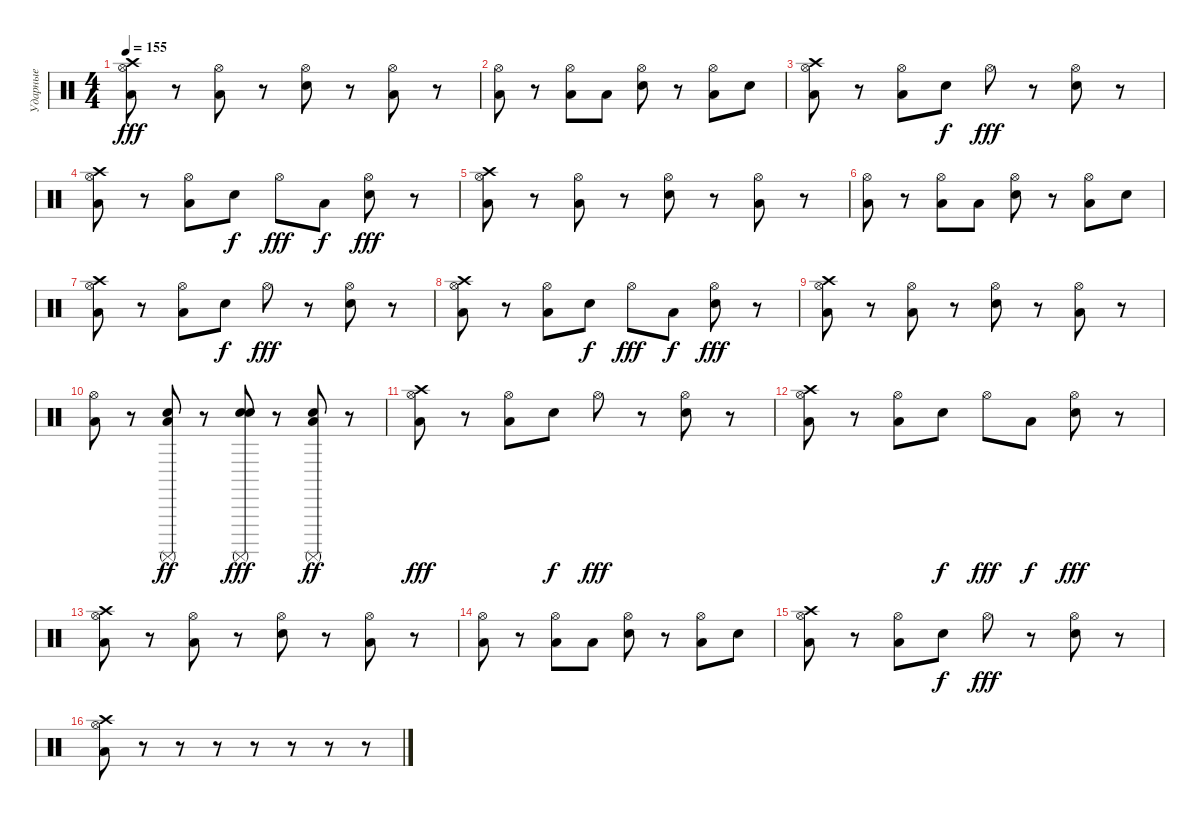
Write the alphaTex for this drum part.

\track ("Ударные" "Ударные") {instrument percussion}
\staff {score}
\articulation defaults
\ts (4 4)
\tempo 155
\clef neutral
\ks c
("Hi-Hat (open)" "Crash high (hit)" "Low Floor Tom (hit)").8{dy fff} r.8 ("Hi-Hat (open)" "Low Tom (hit)").8 r.8 ("Hi-Hat (open)" "Snare (hit) 2").8 r.8 ("Hi-Hat (open)" "Low Tom (hit)").8 r.8 |
("Hi-Hat (open)" "Low Floor Tom (hit)").8 r.8 ("Hi-Hat (open)" "Low Tom (hit)").8 "Low Floor Tom (hit)".8 ("Hi-Hat (open)" "Snare (hit) 2").8 r.8 ("Hi-Hat (open)" "Low Tom (hit)").8 "Snare (hit) 2".8 |
("Hi-Hat (open)" "Crash high (hit)" "Low Floor Tom (hit)").8 r.8 ("Hi-Hat (open)" "Low Tom (hit)").8 "Snare (hit) 2".8{dy f} "Hi-Hat (open)".8{dy fff} r.8 ("Hi-Hat (open)" "Snare (hit) 2").8 r.8 |
("Hi-Hat (open)" "Crash high (hit)" "Low Floor Tom (hit)").8 r.8 ("Hi-Hat (open)" "Low Tom (hit)").8 "Snare (hit) 2".8{dy f} "Hi-Hat (open)".8{dy fff} "Low Tom (hit)".8{dy f} ("Hi-Hat (open)" "Snare (hit) 2").8{dy fff} r.8 |
("Hi-Hat (open)" "Crash high (hit)" "Low Floor Tom (hit)").8 r.8 ("Hi-Hat (open)" "Low Tom (hit)").8 r.8 ("Hi-Hat (open)" "Snare (hit) 2").8 r.8 ("Hi-Hat (open)" "Low Tom (hit)").8 r.8 |
("Hi-Hat (open)" "Low Floor Tom (hit)").8 r.8 ("Hi-Hat (open)" "Low Tom (hit)").8 "Low Floor Tom (hit)".8 ("Hi-Hat (open)" "Snare (hit) 2").8 r.8 ("Hi-Hat (open)" "Low Tom (hit)").8 "Snare (hit) 2".8 |
("Hi-Hat (open)" "Crash high (hit)" "Low Floor Tom (hit)").8 r.8 ("Hi-Hat (open)" "Low Tom (hit)").8 "Snare (hit) 2".8{dy f} "Hi-Hat (open)".8{dy fff} r.8 ("Hi-Hat (open)" "Snare (hit) 2").8 r.8 |
("Hi-Hat (open)" "Crash high (hit)" "Low Floor Tom (hit)").8 r.8 ("Hi-Hat (open)" "Low Tom (hit)").8 "Snare (hit) 2".8{dy f} "Hi-Hat (open)".8{dy fff} "Low Tom (hit)".8{dy f} ("Hi-Hat (open)" "Snare (hit) 2").8{dy fff} r.8 |
("Hi-Hat (open)" "Crash high (hit)" "Low Floor Tom (hit)").8 r.8 ("Hi-Hat (open)" "Low Tom (hit)").8 r.8 ("Hi-Hat (open)" "Snare (hit) 2").8 r.8 ("Hi-Hat (open)" "Low Tom (hit)").8 r.8 |
("Hi-Hat (open)" "Low Floor Tom (hit)").8 r.8 ("Surdo (mute)" "Snare (hit) 2" "Low Tom (hit)").8{dy ff} r.8 ("Surdo (mute)" "Snare (hit) 2" "Snare (hit) 2").8{dy fff} r.8 ("Surdo (mute)" "Snare (hit) 2" "Low Tom (hit)").8{dy ff} r.8 |
("Hi-Hat (open)" "Crash high (hit)" "Low Floor Tom (hit)").8{dy fff} r.8 ("Hi-Hat (open)" "Low Tom (hit)").8 "Snare (hit) 2".8{dy f} "Hi-Hat (open)".8{dy fff} r.8 ("Hi-Hat (open)" "Snare (hit) 2").8 r.8 |
("Hi-Hat (open)" "Crash high (hit)" "Low Floor Tom (hit)").8 r.8 ("Hi-Hat (open)" "Low Tom (hit)").8 "Snare (hit) 2".8{dy f} "Hi-Hat (open)".8{dy fff} "Low Tom (hit)".8{dy f} ("Hi-Hat (open)" "Snare (hit) 2").8{dy fff} r.8 |
("Hi-Hat (open)" "Crash high (hit)" "Low Floor Tom (hit)").8 r.8 ("Hi-Hat (open)" "Low Tom (hit)").8 r.8 ("Hi-Hat (open)" "Snare (hit) 2").8 r.8 ("Hi-Hat (open)" "Low Tom (hit)").8 r.8 |
("Hi-Hat (open)" "Low Floor Tom (hit)").8 r.8 ("Hi-Hat (open)" "Low Tom (hit)").8 "Low Floor Tom (hit)".8 ("Hi-Hat (open)" "Snare (hit) 2").8 r.8 ("Hi-Hat (open)" "Low Tom (hit)").8 "Snare (hit) 2".8 |
("Hi-Hat (open)" "Crash high (hit)" "Low Floor Tom (hit)").8 r.8 ("Hi-Hat (open)" "Low Tom (hit)").8 "Snare (hit) 2".8{dy f} "Hi-Hat (open)".8{dy fff} r.8 ("Hi-Hat (open)" "Snare (hit) 2").8 r.8 |
("Hi-Hat (open)" "Crash high (hit)" "Low Floor Tom (hit)").8 r.8 r.8 r.8 r.8 r.8 r.8 r.8
